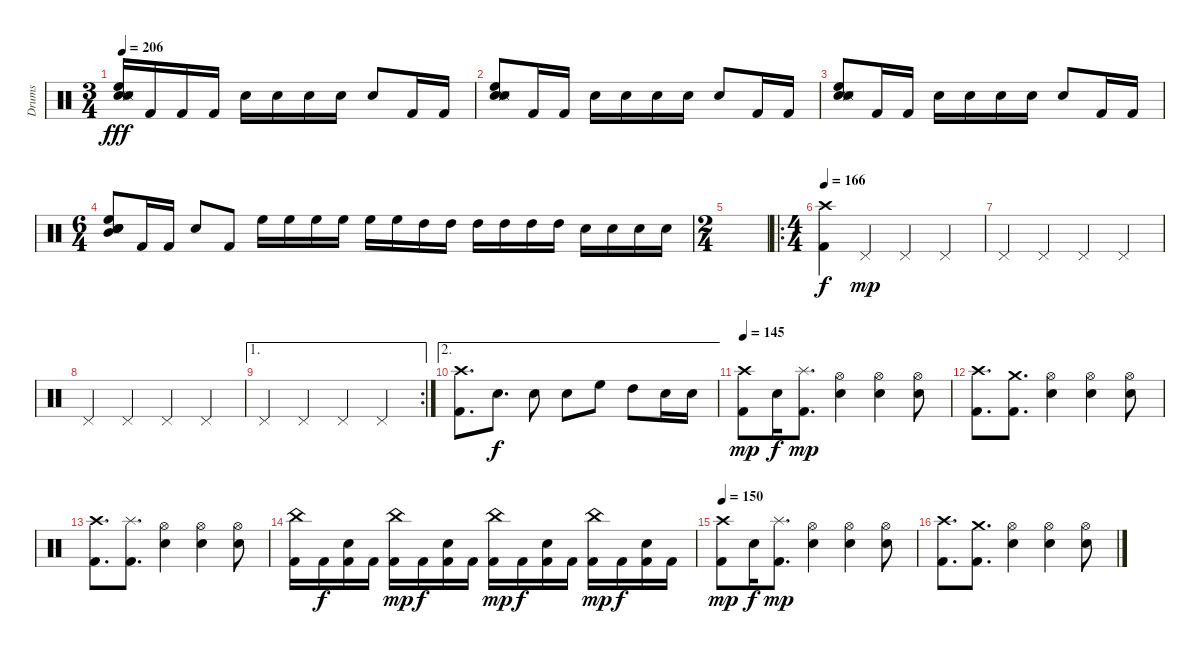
\track ("Drums" "Drums") {instrument percussion}
\staff {score}
\articulation defaults
\ts (3 4)
\tempo 206
\clef neutral
\ks c
("Electric Snare (hit)" "High Floor Tom (hit)" "Snare (side stick) 3" "Metronome (hit)" "Snare (hit)").16{dy fff} "Kick (hit) 2".16 "Kick (hit) 2".16 "Kick (hit) 2".16 "Electric Snare (hit)".16 "Electric Snare (hit)".16 "Electric Snare (hit)".16 "Electric Snare (hit)".16 "Electric Snare (hit)".8 "Kick (hit) 2".16 "Kick (hit) 2".16 |
("Electric Snare (hit)" "High Floor Tom (hit)" "Snare (side stick) 3" "Metronome (hit)" "Snare (hit)").8 "Kick (hit) 2".16 "Kick (hit) 2".16 "Electric Snare (hit)".16 "Electric Snare (hit)".16 "Electric Snare (hit)".16 "Electric Snare (hit)".16 "Electric Snare (hit)".8 "Kick (hit) 2".16 "Kick (hit) 2".16 |
("Electric Snare (hit)" "High Floor Tom (hit)" "Snare (side stick) 3" "Metronome (hit)" "Snare (hit)").8 "Kick (hit) 2".16 "Kick (hit) 2".16 "Electric Snare (hit)".16 "Electric Snare (hit)".16 "Electric Snare (hit)".16 "Electric Snare (hit)".16 "Electric Snare (hit)".8 "Kick (hit) 2".16 "Kick (hit) 2".16 |
\ts (6 4)
("Electric Snare (hit)" "High Floor Tom (hit)" "Mid Tom (hit)" "Snare (hit)" "Snare (hit)").8 "Kick (hit) 2".16 "Kick (hit) 2".16 "Electric Snare (hit)".8 "Kick (hit) 2".8 "High Floor Tom (hit)".16{balance 16} "High Floor Tom (hit)".16 "High Floor Tom (hit)".16 "High Floor Tom (hit)".16 "High Floor Tom (hit)".16 "High Floor Tom (hit)".16 "High Tom (hit)".16{balance 0} "High Tom (hit)".16 "High Tom (hit)".16 "High Tom (hit)".16 "High Tom (hit)".16 "High Tom (hit)".16 "Electric Snare (hit)".16{balance 8} "Electric Snare (hit)".16 "Electric Snare (hit)".16 "Electric Snare (hit)".16 |
\ts (2 4)
|
\ro
\ts (4 4)
\tempo 166
("Crash high (hit)" "Kick (hit) 2").4{dy f} "Pedal Hi-Hat (hit)".4{dy mp} "Pedal Hi-Hat (hit)".4 "Pedal Hi-Hat (hit)".4 |
"Pedal Hi-Hat (hit)".4 "Pedal Hi-Hat (hit)".4 "Pedal Hi-Hat (hit)".4 "Pedal Hi-Hat (hit)".4 |
"Pedal Hi-Hat (hit)".4 "Pedal Hi-Hat (hit)".4 "Pedal Hi-Hat (hit)".4 "Pedal Hi-Hat (hit)".4 |
\ae 1
\rc 2 "Pedal Hi-Hat (hit)".4 "Pedal Hi-Hat (hit)".4 "Pedal Hi-Hat (hit)".4 "Pedal Hi-Hat (hit)".4
|
\ae 2
("Kick (hit) 2" "Crash high (hit)").8{d} "Electric Snare (hit)".8{d dy f} "Electric Snare (hit)".8 "Electric Snare (hit)".8 "High Floor Tom (hit)".8 "High Tom (hit)".8 "Electric Snare (hit)".16 "Electric Snare (hit)".16 |
\tempo 145
("Crash high (hit)" "Kick (hit) 2").8{dy mp} "Electric Snare (hit)".16{dy f} ("Splash (hit)" "Kick (hit) 2").8{d dy mp} ("Hi-Hat (open)" "Electric Snare (hit)").4 ("Hi-Hat (open)" "Electric Snare (hit)").4 ("Hi-Hat (open)" "Electric Snare (hit)").8 |
("Kick (hit) 2" "Crash high (hit)").8{d} ("Kick (hit) 2" "Crash medium (hit)").8{d} ("Hi-Hat (open)" "Electric Snare (hit)").4 ("Hi-Hat (open)" "Electric Snare (hit)").4 ("Hi-Hat (open)" "Electric Snare (hit)").8 |
("Crash high (hit)" "Kick (hit) 2").8{d} ("Splash (hit)" "Kick (hit) 2").8{d} ("Hi-Hat (open)" "Electric Snare (hit)").4 ("Hi-Hat (open)" "Electric Snare (hit)").4 ("Hi-Hat (open)" "Electric Snare (hit)").8 |
("Kick (hit) 2" "China (hit)").16 "Kick (hit) 2".16{dy f} ("Electric Snare (hit)" "Kick (hit) 2").16 "Kick (hit) 2".16 ("Kick (hit) 2" "China (hit)").16{dy mp} "Kick (hit) 2".16{dy f} ("Electric Snare (hit)" "Kick (hit) 2").16 "Kick (hit) 2".16 ("Kick (hit) 2" "China (hit)").16{dy mp} "Kick (hit) 2".16{dy f} ("Electric Snare (hit)" "Kick (hit) 2").16 "Kick (hit) 2".16 ("Kick (hit) 2" "China (hit)").16{dy mp} "Kick (hit) 2".16{dy f} ("Electric Snare (hit)" "Kick (hit) 2").16 "Kick (hit) 2".16 |
\tempo 150
("Kick (hit) 2" "Crash high (hit)").8{dy mp} "Electric Snare (hit)".16{dy f} ("Splash (hit)" "Kick (hit) 2").8{d dy mp} ("Hi-Hat (open)" "Electric Snare (hit)").4 ("Hi-Hat (open)" "Electric Snare (hit)").4 ("Hi-Hat (open)" "Electric Snare (hit)").8 |
("Kick (hit) 2" "Crash high (hit)").8{d} ("Kick (hit) 2" "Crash medium (hit)").8{d} ("Hi-Hat (open)" "Electric Snare (hit)").4 ("Hi-Hat (open)" "Electric Snare (hit)").4 ("Hi-Hat (open)" "Electric Snare (hit)").8
